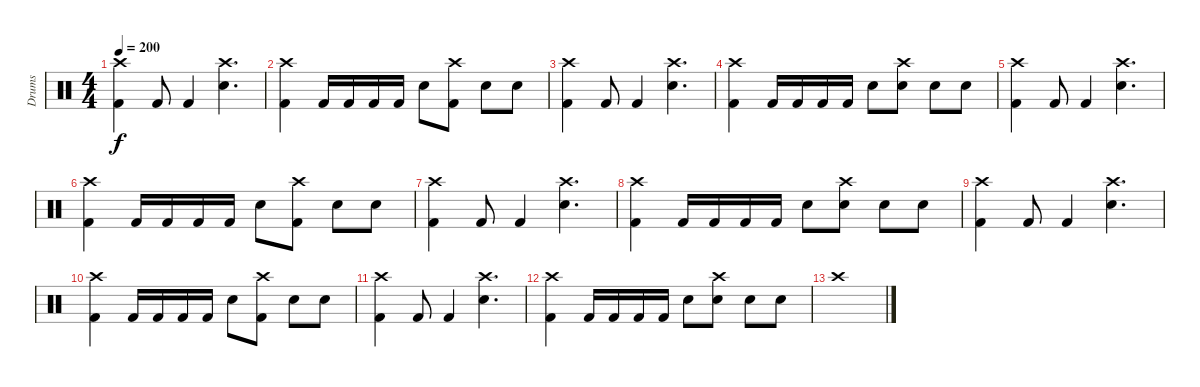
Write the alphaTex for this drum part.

\track ("Drums" "Drums") {instrument percussion}
\staff {score}
\articulation defaults
\ts (4 4)
\tempo 200
\clef neutral
\ks c
("Crash high (hit)" "Kick (hit) 2").4{dy f} "Kick (hit) 2".8 "Kick (hit) 2".4 ("Crash high (hit)" "Snare (hit) 2").4{d} |
("Crash high (hit)" "Kick (hit) 2").4 "Kick (hit) 2".16 "Kick (hit) 2".16 "Kick (hit) 2".16 "Kick (hit) 2".16 "Snare (hit) 2".8 ("Crash high (hit)" "Kick (hit) 2").8 "Snare (hit) 2".8 "Snare (hit) 2".8 |
("Crash high (hit)" "Kick (hit) 2").4 "Kick (hit) 2".8 "Kick (hit) 2".4 ("Crash high (hit)" "Snare (hit) 2").4{d} |
("Crash high (hit)" "Kick (hit) 2").4 "Kick (hit) 2".16 "Kick (hit) 2".16 "Kick (hit) 2".16 "Kick (hit) 2".16 "Snare (hit) 2".8 ("Crash high (hit)" "Snare (hit) 2").8 "Snare (hit) 2".8 "Snare (hit) 2".8 |
("Crash high (hit)" "Kick (hit) 2").4 "Kick (hit) 2".8 "Kick (hit) 2".4 ("Crash high (hit)" "Snare (hit) 2").4{d} |
("Crash high (hit)" "Kick (hit) 2").4 "Kick (hit) 2".16 "Kick (hit) 2".16 "Kick (hit) 2".16 "Kick (hit) 2".16 "Snare (hit) 2".8 ("Crash high (hit)" "Kick (hit) 2").8 "Snare (hit) 2".8 "Snare (hit) 2".8 |
("Crash high (hit)" "Kick (hit) 2").4 "Kick (hit) 2".8 "Kick (hit) 2".4 ("Crash high (hit)" "Snare (hit) 2").4{d} |
("Crash high (hit)" "Kick (hit) 2").4 "Kick (hit) 2".16 "Kick (hit) 2".16 "Kick (hit) 2".16 "Kick (hit) 2".16 "Snare (hit) 2".8 ("Crash high (hit)" "Snare (hit) 2").8 "Snare (hit) 2".8 "Snare (hit) 2".8 |
("Crash high (hit)" "Kick (hit) 2").4 "Kick (hit) 2".8 "Kick (hit) 2".4 ("Crash high (hit)" "Snare (hit) 2").4{d} |
("Crash high (hit)" "Kick (hit) 2").4 "Kick (hit) 2".16 "Kick (hit) 2".16 "Kick (hit) 2".16 "Kick (hit) 2".16 "Snare (hit) 2".8 ("Crash high (hit)" "Kick (hit) 2").8 "Snare (hit) 2".8 "Snare (hit) 2".8 |
("Crash high (hit)" "Kick (hit) 2").4 "Kick (hit) 2".8 "Kick (hit) 2".4 ("Crash high (hit)" "Snare (hit) 2").4{d} |
("Crash high (hit)" "Kick (hit) 2").4 "Kick (hit) 2".16 "Kick (hit) 2".16 "Kick (hit) 2".16 "Kick (hit) 2".16 "Snare (hit) 2".8 ("Crash high (hit)" "Snare (hit) 2").8 "Snare (hit) 2".8 "Snare (hit) 2".8 |
"Crash high (hit)".1
